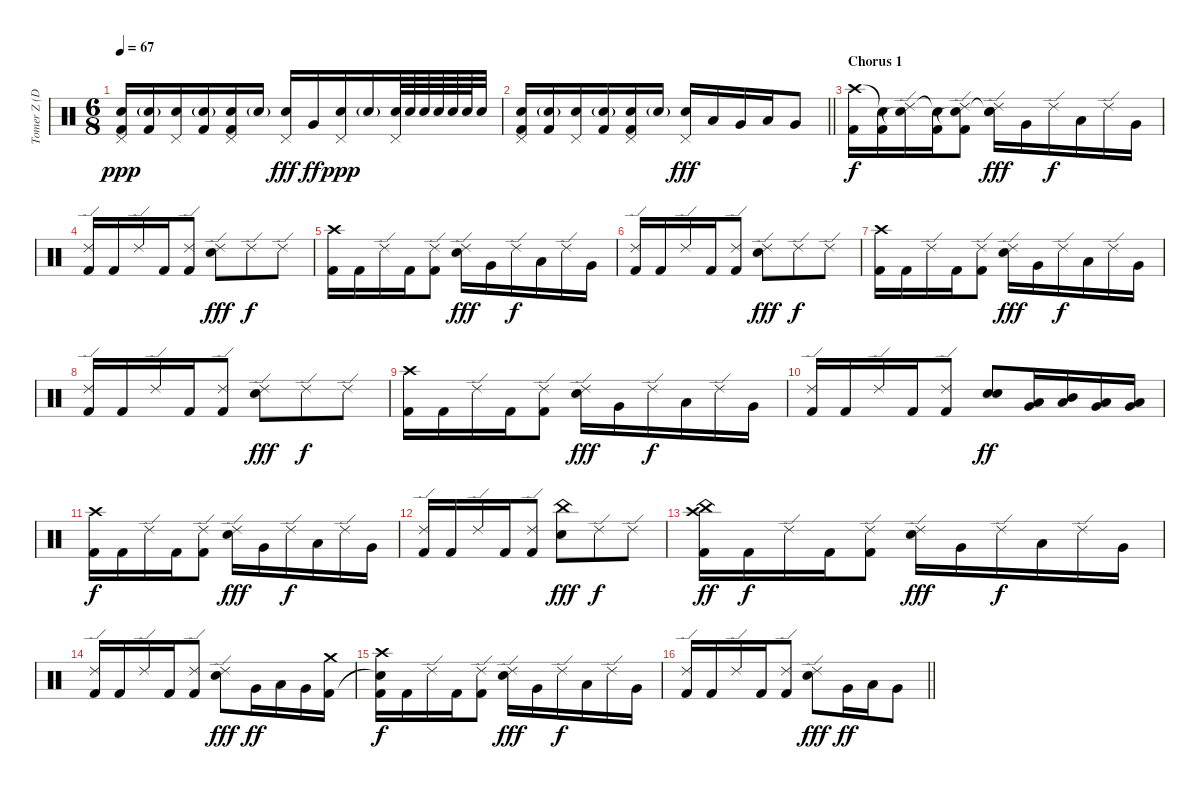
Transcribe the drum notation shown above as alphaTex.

\track ("Tomer Z (Drums)" "Tomer Z (D") {instrument percussion}
\staff {score}
\articulation defaults
\ts (6 8)
\tempo 67
\clef neutral
\ks c
("Pedal Hi-Hat (hit)" "Snare (hit) 2" "Kick (hit) 2").16{dy ppp} ("Snare (hit) 2"{g} "Kick (hit) 2").16 ("Pedal Hi-Hat (hit)" "Snare (hit) 2").16 ("Snare (hit) 2"{g} "Kick (hit) 2").16 ("Pedal Hi-Hat (hit)" "Snare (hit) 2" "Kick (hit) 2").16 "Snare (hit) 2"{g}.16 ("Pedal Hi-Hat (hit)" "Snare (hit) 2").16{dy fff} "Very Low Tom (hit)".16{dy ff} ("Pedal Hi-Hat (hit)" "Snare (hit) 2").16{dy ppp} "Snare (hit) 2"{g}.16 ("Pedal Hi-Hat (hit)" "Snare (hit) 2").64 "Snare (hit) 2".64 "Snare (hit) 2".64 "Snare (hit) 2".64 "Snare (hit) 2".64 "Snare (hit) 2".64 "Snare (hit) 2".32 |
\barLineRight lightlight
("Pedal Hi-Hat (hit)" "Snare (hit) 2" "Kick (hit) 2").16 ("Snare (hit) 2"{g} "Kick (hit) 2").16 ("Pedal Hi-Hat (hit)" "Snare (hit) 2").16 ("Snare (hit) 2"{g} "Kick (hit) 2").16 ("Pedal Hi-Hat (hit)" "Snare (hit) 2" "Kick (hit) 2").16 "Snare (hit) 2"{g}.16 ("Pedal Hi-Hat (hit)" "Snare (hit) 2").16{dy fff} "Low Tom (hit)".16 "Very Low Tom (hit)".16 "Low Tom (hit)".16 "Very Low Tom (hit)".8 |
\section ("" "Chorus 1")
("Crash high (hit)" "Kick (hit) 2").16{dy f} ("Snare (hit)"{t} "Kick (hit) 2").16 ("Ride (edge) 2" "Snare (hit)"{t}).16 ("Snare (hit)"{t} "Kick (hit) 2").16 ("Ride (edge) 2" "Snare (hit)"{t} "Kick (hit) 2").8 ("Ride (edge) 2" "Snare (hit)"{t} "Snare (hit) 2").16{dy fff} "Very Low Tom (hit)".16 "Ride (edge) 2".16{dy f} "Low Tom (hit)".16 "Ride (edge) 2".16 "Very Low Tom (hit)".16 |
("Ride (edge) 2" "Kick (hit) 2").16 "Kick (hit) 2".16 "Ride (edge) 2".16 "Kick (hit) 2".16 ("Ride (edge) 2" "Kick (hit) 2").8 ("Ride (edge) 2" "Snare (hit) 2").8{dy fff} "Ride (edge) 2".8{dy f} "Ride (edge) 2".8 |
("Crash high (hit)" "Kick (hit) 2").16 "Kick (hit) 2".16 "Ride (edge) 2".16 "Kick (hit) 2".16 ("Ride (edge) 2" "Kick (hit) 2").8 ("Ride (edge) 2" "Snare (hit) 2").16{dy fff} "Very Low Tom (hit)".16 "Ride (edge) 2".16{dy f} "Low Tom (hit)".16 "Ride (edge) 2".16 "Very Low Tom (hit)".16 |
("Ride (edge) 2" "Kick (hit) 2").16 "Kick (hit) 2".16 "Ride (edge) 2".16 "Kick (hit) 2".16 ("Ride (edge) 2" "Kick (hit) 2").8 ("Ride (edge) 2" "Snare (hit) 2").8{dy fff} "Ride (edge) 2".8{dy f} "Ride (edge) 2".8 |
("Crash high (hit)" "Kick (hit) 2").16 "Kick (hit) 2".16 "Ride (edge) 2".16 "Kick (hit) 2".16 ("Ride (edge) 2" "Kick (hit) 2").8 ("Ride (edge) 2" "Snare (hit) 2").16{dy fff} "Very Low Tom (hit)".16 "Ride (edge) 2".16{dy f} "Low Tom (hit)".16 "Ride (edge) 2".16 "Very Low Tom (hit)".16 |
("Ride (edge) 2" "Kick (hit) 2").16 "Kick (hit) 2".16 "Ride (edge) 2".16 "Kick (hit) 2".16 ("Ride (edge) 2" "Kick (hit) 2").8 ("Ride (edge) 2" "Snare (hit) 2").8{dy fff} "Ride (edge) 2".8{dy f} "Ride (edge) 2".8 |
("Crash high (hit)" "Kick (hit) 2").16 "Kick (hit) 2".16 "Ride (edge) 2".16 "Kick (hit) 2".16 ("Ride (edge) 2" "Kick (hit) 2").8 ("Ride (edge) 2" "Snare (hit) 2").16{dy fff} "Very Low Tom (hit)".16 "Ride (edge) 2".16{dy f} "Low Tom (hit)".16 "Ride (edge) 2".16 "Very Low Tom (hit)".16 |
("Ride (edge) 2" "Kick (hit) 2").16 "Kick (hit) 2".16 "Ride (edge) 2".16 "Kick (hit) 2".16 ("Ride (edge) 2" "Kick (hit) 2").8 ("Snare (hit) 2" "Snare (hit) 2").8{dy ff} ("Low Tom (hit)" "Very Low Tom (hit)").16 ("Mid Tom (hit)" "Low Tom (hit)").16 ("Low Tom (hit)" "Very Low Tom (hit)").16 ("Low Tom (hit)" "Very Low Tom (hit)").16 |
("Crash high (hit)" "Kick (hit) 2").16{dy f} "Kick (hit) 2".16 "Ride (edge) 2".16 "Kick (hit) 2".16 ("Ride (edge) 2" "Kick (hit) 2").8 ("Ride (edge) 2" "Snare (hit) 2").16{dy fff} "Very Low Tom (hit)".16 "Ride (edge) 2".16{dy f} "Low Tom (hit)".16 "Ride (edge) 2".16 "Very Low Tom (hit)".16 |
("Ride (edge) 2" "Kick (hit) 2").16 "Kick (hit) 2".16 "Ride (edge) 2".16 "Kick (hit) 2".16 ("Ride (edge) 2" "Kick (hit) 2").8 ("China (hit)" "Snare (hit) 2").8{dy fff} "Ride (edge) 2".8{dy f} "Ride (edge) 2".8 |
("Crash high (hit)" "China (hit)" "Kick (hit) 2").16{dy ff} "Kick (hit) 2".16{dy f} "Ride (edge) 2".16 "Kick (hit) 2".16 ("Ride (edge) 2" "Kick (hit) 2").8 ("Ride (edge) 2" "Snare (hit) 2").16{dy fff} "Very Low Tom (hit)".16 "Ride (edge) 2".16{dy f} "Low Tom (hit)".16 "Ride (edge) 2".16 "Very Low Tom (hit)".16 |
("Ride (edge) 2" "Kick (hit) 2").16 "Kick (hit) 2".16 "Ride (edge) 2".16 "Kick (hit) 2".16 ("Ride (edge) 2" "Kick (hit) 2").8 ("Ride (edge) 2" "Snare (hit) 2").8{dy fff} "Very Low Tom (hit)".16{dy ff} "Low Tom (hit)".16 "Very Low Tom (hit)".16 ("Crash medium (hit)" "Kick (hit) 2").16 |
("Crash high (hit)" "Snare (hit)"{t} "Kick (hit) 2").16{dy f} "Kick (hit) 2".16 "Ride (edge) 2".16 "Kick (hit) 2".16 ("Ride (edge) 2" "Kick (hit) 2").8 ("Ride (edge) 2" "Snare (hit) 2").16{dy fff} "Very Low Tom (hit)".16 "Ride (edge) 2".16{dy f} "Low Tom (hit)".16 "Ride (edge) 2".16 "Very Low Tom (hit)".16 |
\barLineRight lightlight
("Ride (edge) 2" "Kick (hit) 2").16 "Kick (hit) 2".16 "Ride (edge) 2".16 "Kick (hit) 2".16 ("Ride (edge) 2" "Kick (hit) 2").8 ("Ride (edge) 2" "Snare (hit) 2").8{dy fff} "Very Low Tom (hit)".16{dy ff} "Low Tom (hit)".16 "Very Low Tom (hit)".8
